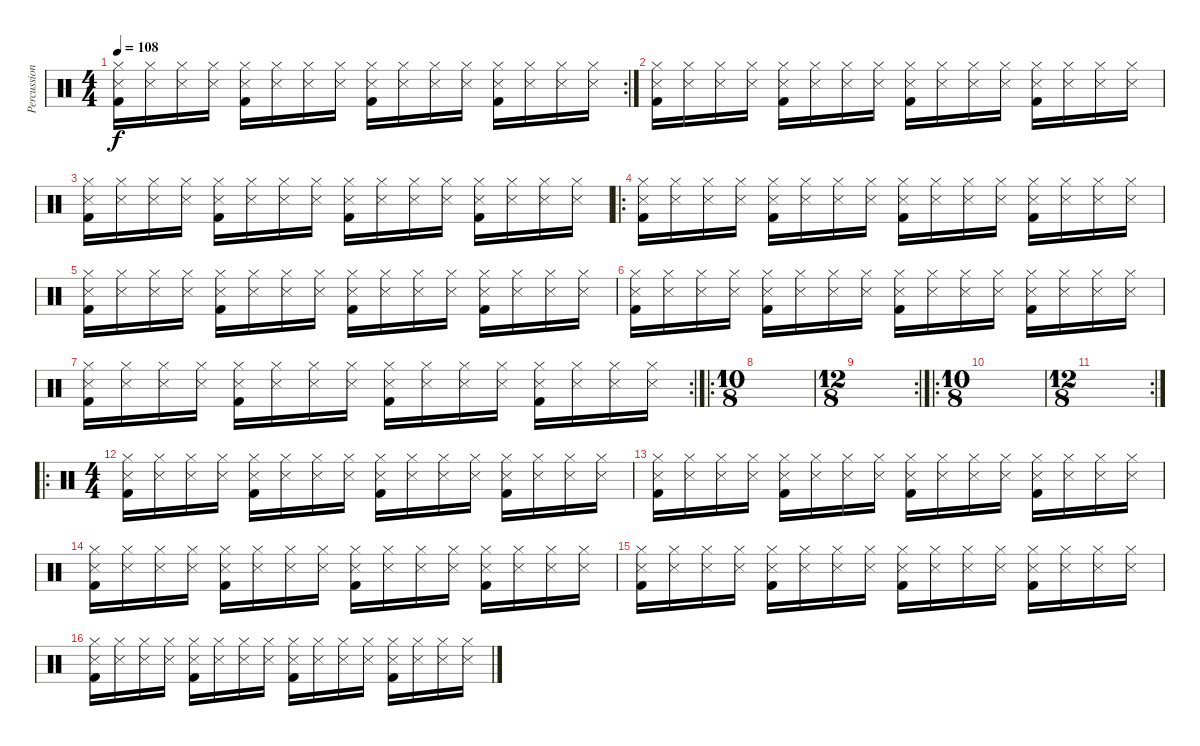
\track ("Percussions" "Percussion") {instrument percussion}
\staff {score}
\articulation defaults
\rc 2
\ts (4 4)
\tempo 108
\clef neutral
\ks c
("Kick (hit) 2" "Hi-Hat (closed)" "Snare (side stick) 3").16{dy f} ("Hi-Hat (closed)" "Snare (side stick) 3").16 ("Hi-Hat (closed)" "Snare (side stick) 3").16 ("Hi-Hat (closed)" "Snare (side stick) 3").16 ("Kick (hit) 2" "Hi-Hat (closed)" "Snare (side stick) 3").16 ("Hi-Hat (closed)" "Snare (side stick) 3").16 ("Hi-Hat (closed)" "Snare (side stick) 3").16 ("Hi-Hat (closed)" "Snare (side stick) 3").16 ("Kick (hit) 2" "Hi-Hat (closed)" "Snare (side stick) 3").16 ("Hi-Hat (closed)" "Snare (side stick) 3").16 ("Hi-Hat (closed)" "Snare (side stick) 3").16 ("Hi-Hat (closed)" "Snare (side stick) 3").16 ("Kick (hit) 2" "Hi-Hat (closed)" "Snare (side stick) 3").16 ("Hi-Hat (closed)" "Snare (side stick) 3").16 ("Hi-Hat (closed)" "Snare (side stick) 3").16 ("Hi-Hat (closed)" "Snare (side stick) 3").16 |
("Kick (hit) 2" "Hi-Hat (closed)" "Snare (side stick) 3").16 ("Hi-Hat (closed)" "Snare (side stick) 3").16 ("Hi-Hat (closed)" "Snare (side stick) 3").16 ("Hi-Hat (closed)" "Snare (side stick) 3").16 ("Kick (hit) 2" "Hi-Hat (closed)" "Snare (side stick) 3").16 ("Hi-Hat (closed)" "Snare (side stick) 3").16 ("Hi-Hat (closed)" "Snare (side stick) 3").16 ("Hi-Hat (closed)" "Snare (side stick) 3").16 ("Kick (hit) 2" "Hi-Hat (closed)" "Snare (side stick) 3").16 ("Hi-Hat (closed)" "Snare (side stick) 3").16 ("Hi-Hat (closed)" "Snare (side stick) 3").16 ("Hi-Hat (closed)" "Snare (side stick) 3").16 ("Kick (hit) 2" "Hi-Hat (closed)" "Snare (side stick) 3").16 ("Hi-Hat (closed)" "Snare (side stick) 3").16 ("Hi-Hat (closed)" "Snare (side stick) 3").16 ("Hi-Hat (closed)" "Snare (side stick) 3").16 |
("Kick (hit) 2" "Hi-Hat (closed)" "Snare (side stick) 3").16 ("Hi-Hat (closed)" "Snare (side stick) 3").16 ("Hi-Hat (closed)" "Snare (side stick) 3").16 ("Hi-Hat (closed)" "Snare (side stick) 3").16 ("Kick (hit) 2" "Hi-Hat (closed)" "Snare (side stick) 3").16 ("Hi-Hat (closed)" "Snare (side stick) 3").16 ("Hi-Hat (closed)" "Snare (side stick) 3").16 ("Hi-Hat (closed)" "Snare (side stick) 3").16 ("Kick (hit) 2" "Hi-Hat (closed)" "Snare (side stick) 3").16 ("Hi-Hat (closed)" "Snare (side stick) 3").16 ("Hi-Hat (closed)" "Snare (side stick) 3").16 ("Hi-Hat (closed)" "Snare (side stick) 3").16 ("Kick (hit) 2" "Hi-Hat (closed)" "Snare (side stick) 3").16 ("Hi-Hat (closed)" "Snare (side stick) 3").16 ("Hi-Hat (closed)" "Snare (side stick) 3").16 ("Hi-Hat (closed)" "Snare (side stick) 3").16 |
\ro
("Kick (hit) 2" "Hi-Hat (closed)" "Snare (side stick) 3").16 ("Hi-Hat (closed)" "Snare (side stick) 3").16 ("Hi-Hat (closed)" "Snare (side stick) 3").16 ("Hi-Hat (closed)" "Snare (side stick) 3").16 ("Kick (hit) 2" "Hi-Hat (closed)" "Snare (side stick) 3").16 ("Hi-Hat (closed)" "Snare (side stick) 3").16 ("Hi-Hat (closed)" "Snare (side stick) 3").16 ("Hi-Hat (closed)" "Snare (side stick) 3").16 ("Kick (hit) 2" "Hi-Hat (closed)" "Snare (side stick) 3").16 ("Hi-Hat (closed)" "Snare (side stick) 3").16 ("Hi-Hat (closed)" "Snare (side stick) 3").16 ("Hi-Hat (closed)" "Snare (side stick) 3").16 ("Kick (hit) 2" "Hi-Hat (closed)" "Snare (side stick) 3").16 ("Hi-Hat (closed)" "Snare (side stick) 3").16 ("Hi-Hat (closed)" "Snare (side stick) 3").16 ("Hi-Hat (closed)" "Snare (side stick) 3").16 |
("Kick (hit) 2" "Hi-Hat (closed)" "Snare (side stick) 3").16 ("Hi-Hat (closed)" "Snare (side stick) 3").16 ("Hi-Hat (closed)" "Snare (side stick) 3").16 ("Hi-Hat (closed)" "Snare (side stick) 3").16 ("Kick (hit) 2" "Hi-Hat (closed)" "Snare (side stick) 3").16 ("Hi-Hat (closed)" "Snare (side stick) 3").16 ("Hi-Hat (closed)" "Snare (side stick) 3").16 ("Hi-Hat (closed)" "Snare (side stick) 3").16 ("Kick (hit) 2" "Hi-Hat (closed)" "Snare (side stick) 3").16 ("Hi-Hat (closed)" "Snare (side stick) 3").16 ("Hi-Hat (closed)" "Snare (side stick) 3").16 ("Hi-Hat (closed)" "Snare (side stick) 3").16 ("Kick (hit) 2" "Hi-Hat (closed)" "Snare (side stick) 3").16 ("Hi-Hat (closed)" "Snare (side stick) 3").16 ("Hi-Hat (closed)" "Snare (side stick) 3").16 ("Hi-Hat (closed)" "Snare (side stick) 3").16 |
("Kick (hit) 2" "Hi-Hat (closed)" "Snare (side stick) 3").16 ("Hi-Hat (closed)" "Snare (side stick) 3").16 ("Hi-Hat (closed)" "Snare (side stick) 3").16 ("Hi-Hat (closed)" "Snare (side stick) 3").16 ("Kick (hit) 2" "Hi-Hat (closed)" "Snare (side stick) 3").16 ("Hi-Hat (closed)" "Snare (side stick) 3").16 ("Hi-Hat (closed)" "Snare (side stick) 3").16 ("Hi-Hat (closed)" "Snare (side stick) 3").16 ("Kick (hit) 2" "Hi-Hat (closed)" "Snare (side stick) 3").16 ("Hi-Hat (closed)" "Snare (side stick) 3").16 ("Hi-Hat (closed)" "Snare (side stick) 3").16 ("Hi-Hat (closed)" "Snare (side stick) 3").16 ("Kick (hit) 2" "Hi-Hat (closed)" "Snare (side stick) 3").16 ("Hi-Hat (closed)" "Snare (side stick) 3").16 ("Hi-Hat (closed)" "Snare (side stick) 3").16 ("Hi-Hat (closed)" "Snare (side stick) 3").16 |
\rc 2
("Kick (hit) 2" "Hi-Hat (closed)" "Snare (side stick) 3").16 ("Hi-Hat (closed)" "Snare (side stick) 3").16 ("Hi-Hat (closed)" "Snare (side stick) 3").16 ("Hi-Hat (closed)" "Snare (side stick) 3").16 ("Kick (hit) 2" "Hi-Hat (closed)" "Snare (side stick) 3").16 ("Hi-Hat (closed)" "Snare (side stick) 3").16 ("Hi-Hat (closed)" "Snare (side stick) 3").16 ("Hi-Hat (closed)" "Snare (side stick) 3").16 ("Kick (hit) 2" "Hi-Hat (closed)" "Snare (side stick) 3").16 ("Hi-Hat (closed)" "Snare (side stick) 3").16 ("Hi-Hat (closed)" "Snare (side stick) 3").16 ("Hi-Hat (closed)" "Snare (side stick) 3").16 ("Kick (hit) 2" "Hi-Hat (closed)" "Snare (side stick) 3").16 ("Hi-Hat (closed)" "Snare (side stick) 3").16 ("Hi-Hat (closed)" "Snare (side stick) 3").16 ("Hi-Hat (closed)" "Snare (side stick) 3").16 |
\ro
\ts (10 8)
|
\rc 2
\ts (12 8)
|
\ro
\ts (10 8)
|
\rc 2
\ts (12 8)
|
\ro
\ts (4 4)
("Kick (hit) 2" "Hi-Hat (closed)" "Snare (side stick) 3").16 ("Hi-Hat (closed)" "Snare (side stick) 3").16 ("Hi-Hat (closed)" "Snare (side stick) 3").16 ("Hi-Hat (closed)" "Snare (side stick) 3").16 ("Kick (hit) 2" "Hi-Hat (closed)" "Snare (side stick) 3").16 ("Hi-Hat (closed)" "Snare (side stick) 3").16 ("Hi-Hat (closed)" "Snare (side stick) 3").16 ("Hi-Hat (closed)" "Snare (side stick) 3").16 ("Kick (hit) 2" "Hi-Hat (closed)" "Snare (side stick) 3").16 ("Hi-Hat (closed)" "Snare (side stick) 3").16 ("Hi-Hat (closed)" "Snare (side stick) 3").16 ("Hi-Hat (closed)" "Snare (side stick) 3").16 ("Kick (hit) 2" "Hi-Hat (closed)" "Snare (side stick) 3").16 ("Hi-Hat (closed)" "Snare (side stick) 3").16 ("Hi-Hat (closed)" "Snare (side stick) 3").16 ("Hi-Hat (closed)" "Snare (side stick) 3").16 |
("Kick (hit) 2" "Hi-Hat (closed)" "Snare (side stick) 3").16 ("Hi-Hat (closed)" "Snare (side stick) 3").16 ("Hi-Hat (closed)" "Snare (side stick) 3").16 ("Hi-Hat (closed)" "Snare (side stick) 3").16 ("Kick (hit) 2" "Hi-Hat (closed)" "Snare (side stick) 3").16 ("Hi-Hat (closed)" "Snare (side stick) 3").16 ("Hi-Hat (closed)" "Snare (side stick) 3").16 ("Hi-Hat (closed)" "Snare (side stick) 3").16 ("Kick (hit) 2" "Hi-Hat (closed)" "Snare (side stick) 3").16 ("Hi-Hat (closed)" "Snare (side stick) 3").16 ("Hi-Hat (closed)" "Snare (side stick) 3").16 ("Hi-Hat (closed)" "Snare (side stick) 3").16 ("Kick (hit) 2" "Hi-Hat (closed)" "Snare (side stick) 3").16 ("Hi-Hat (closed)" "Snare (side stick) 3").16 ("Hi-Hat (closed)" "Snare (side stick) 3").16 ("Hi-Hat (closed)" "Snare (side stick) 3").16 |
("Kick (hit) 2" "Hi-Hat (closed)" "Snare (side stick) 3").16 ("Hi-Hat (closed)" "Snare (side stick) 3").16 ("Hi-Hat (closed)" "Snare (side stick) 3").16 ("Hi-Hat (closed)" "Snare (side stick) 3").16 ("Kick (hit) 2" "Hi-Hat (closed)" "Snare (side stick) 3").16 ("Hi-Hat (closed)" "Snare (side stick) 3").16 ("Hi-Hat (closed)" "Snare (side stick) 3").16 ("Hi-Hat (closed)" "Snare (side stick) 3").16 ("Kick (hit) 2" "Hi-Hat (closed)" "Snare (side stick) 3").16 ("Hi-Hat (closed)" "Snare (side stick) 3").16 ("Hi-Hat (closed)" "Snare (side stick) 3").16 ("Hi-Hat (closed)" "Snare (side stick) 3").16 ("Kick (hit) 2" "Hi-Hat (closed)" "Snare (side stick) 3").16 ("Hi-Hat (closed)" "Snare (side stick) 3").16 ("Hi-Hat (closed)" "Snare (side stick) 3").16 ("Hi-Hat (closed)" "Snare (side stick) 3").16 |
("Kick (hit) 2" "Hi-Hat (closed)" "Snare (side stick) 3").16 ("Hi-Hat (closed)" "Snare (side stick) 3").16 ("Hi-Hat (closed)" "Snare (side stick) 3").16 ("Hi-Hat (closed)" "Snare (side stick) 3").16 ("Kick (hit) 2" "Hi-Hat (closed)" "Snare (side stick) 3").16 ("Hi-Hat (closed)" "Snare (side stick) 3").16 ("Hi-Hat (closed)" "Snare (side stick) 3").16 ("Hi-Hat (closed)" "Snare (side stick) 3").16 ("Kick (hit) 2" "Hi-Hat (closed)" "Snare (side stick) 3").16 ("Hi-Hat (closed)" "Snare (side stick) 3").16 ("Hi-Hat (closed)" "Snare (side stick) 3").16 ("Hi-Hat (closed)" "Snare (side stick) 3").16 ("Kick (hit) 2" "Hi-Hat (closed)" "Snare (side stick) 3").16 ("Hi-Hat (closed)" "Snare (side stick) 3").16 ("Hi-Hat (closed)" "Snare (side stick) 3").16 ("Hi-Hat (closed)" "Snare (side stick) 3").16 |
("Kick (hit) 2" "Hi-Hat (closed)" "Snare (side stick) 3").16 ("Hi-Hat (closed)" "Snare (side stick) 3").16 ("Hi-Hat (closed)" "Snare (side stick) 3").16 ("Hi-Hat (closed)" "Snare (side stick) 3").16 ("Kick (hit) 2" "Hi-Hat (closed)" "Snare (side stick) 3").16 ("Hi-Hat (closed)" "Snare (side stick) 3").16 ("Hi-Hat (closed)" "Snare (side stick) 3").16 ("Hi-Hat (closed)" "Snare (side stick) 3").16 ("Kick (hit) 2" "Hi-Hat (closed)" "Snare (side stick) 3").16 ("Hi-Hat (closed)" "Snare (side stick) 3").16 ("Hi-Hat (closed)" "Snare (side stick) 3").16 ("Hi-Hat (closed)" "Snare (side stick) 3").16 ("Kick (hit) 2" "Hi-Hat (closed)" "Snare (side stick) 3").16 ("Hi-Hat (closed)" "Snare (side stick) 3").16 ("Hi-Hat (closed)" "Snare (side stick) 3").16 ("Hi-Hat (closed)" "Snare (side stick) 3").16
